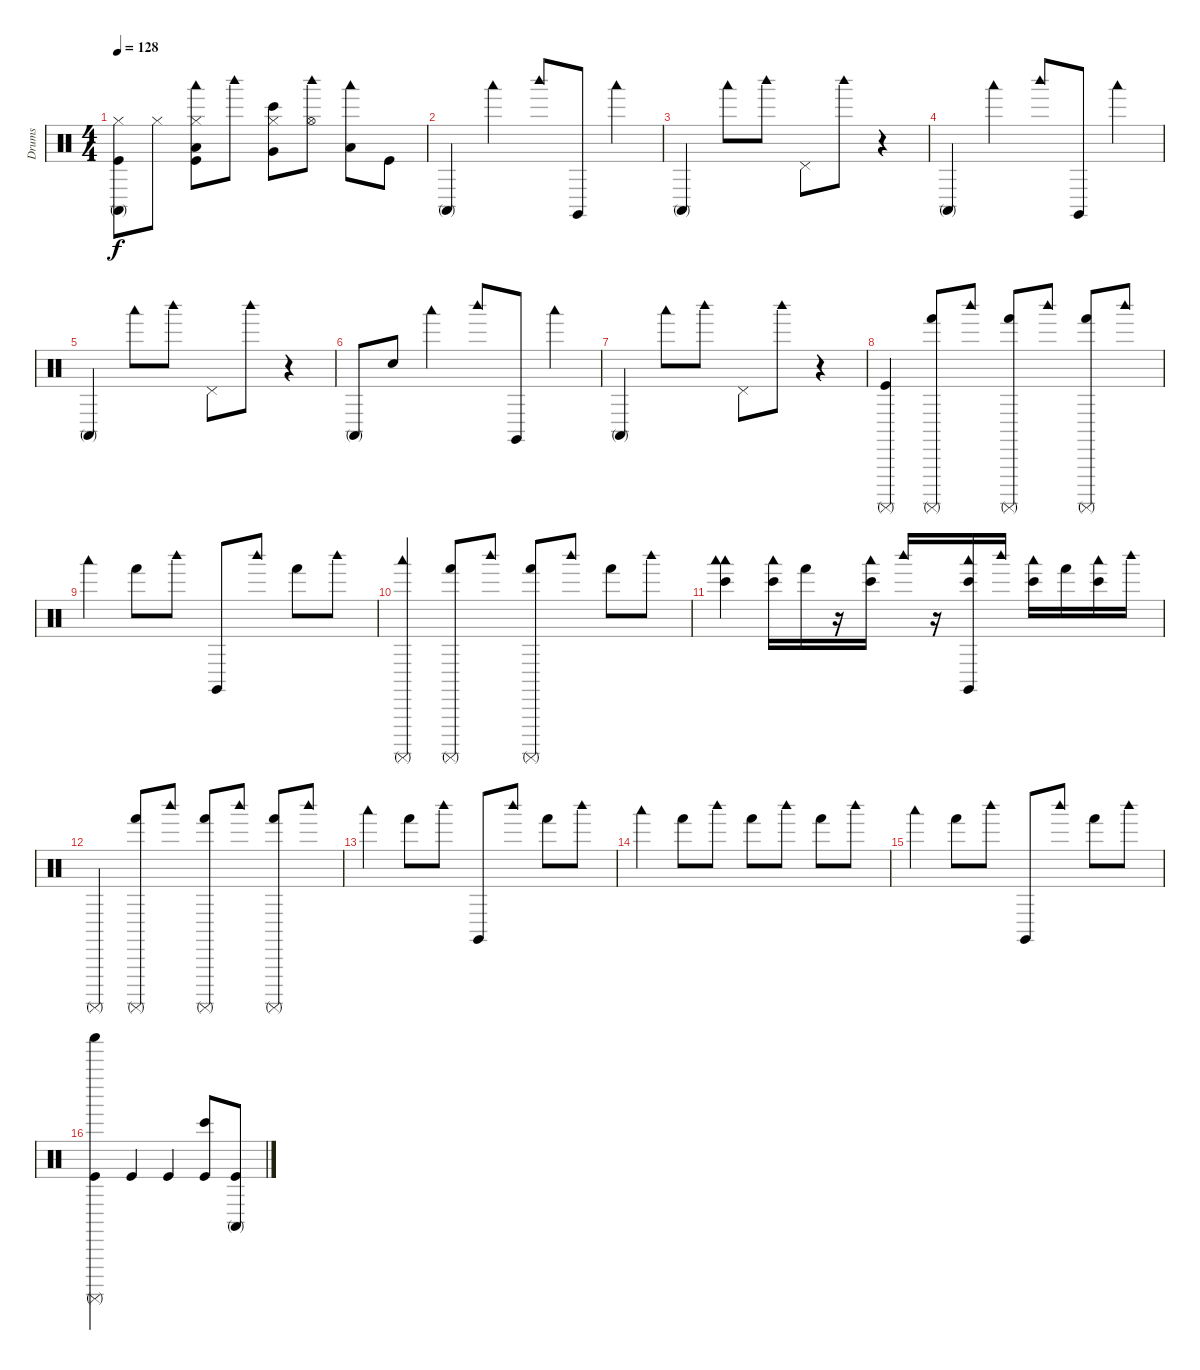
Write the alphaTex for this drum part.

\track ("Drums" "Drums") {instrument percussion}
\staff {score}
\articulation defaults
\ts (4 4)
\tempo 128
\clef neutral
\ks c
("Hi-Hat (closed)" "Conga high (mute)" "Kick (hit)").8{dy f} "Hi-Hat (closed)".8 ("Hi-Hat (closed)" "Woodblock low (hit)" "Low Tom (hit)" "Kick (hit)").8 "Woodblock high (hit)".8 ("Hi-Hat (closed)" "Very Low Tom (hit)" "Bongo High (hit)").8 ("Hi-Hat (open)" "Woodblock high (hit)").8 ("Woodblock low (hit)" "Low Floor Tom (hit)").8 "Kick (hit)".8 |
"Conga high (mute)".4 "Woodblock low (hit)".4 "Woodblock high (hit)".8 "Claves (hit)".8 "Woodblock low (hit)".4 |
"Conga high (mute)".4 "Woodblock low (hit)".8 "Woodblock high (hit)".8 "Pedal Hi-Hat (hit)".8 "Woodblock high (hit)".8 r.4 |
"Conga high (mute)".4 "Woodblock low (hit)".4 "Woodblock high (hit)".8 "Claves (hit)".8 "Woodblock low (hit)".4 |
"Conga high (mute)".4 "Woodblock low (hit)".8 "Woodblock high (hit)".8 "Pedal Hi-Hat (hit)".8 "Woodblock high (hit)".8 r.4 |
"Conga high (mute)".8 "Electric Snare (hit)".8 "Woodblock low (hit)".4 "Woodblock high (hit)".8 "Claves (hit)".8 "Woodblock low (hit)".4 |
"Conga high (mute)".4 "Woodblock low (hit)".8 "Woodblock high (hit)".8 "Pedal Hi-Hat (hit)".8 "Woodblock high (hit)".8 r.4 |
("Surdo (mute)" "Kick (hit)").4 ("Surdo (mute)" "Hand (hit)").8 "Woodblock high (hit)".8 ("Surdo (mute)" "Hand (hit)").8 "Woodblock high (hit)".8 ("Surdo (mute)" "Hand (hit)").8 "Woodblock high (hit)".8 |
"Woodblock low (hit)".4 "Hand (hit)".8 "Woodblock high (hit)".8 "Claves (hit)".8 "Woodblock high (hit)".8 "Hand (hit)".8 "Woodblock high (hit)".8 |
("Surdo (mute)" "Woodblock low (hit)").4 ("Surdo (mute)" "Hand (hit)").8 "Woodblock high (hit)".8 ("Surdo (mute)" "Hand (hit)").8 "Woodblock high (hit)".8 "Hand (hit)".8 "Woodblock high (hit)".8 |
("Woodblock low (hit)" "Bongo High (hit)" "Woodblock low (hit)").4 ("Woodblock low (hit)" "Bongo High (hit)").16 "Hand (hit)".16 r.16 ("Woodblock low (hit)" "Bongo High (hit)").16 "Woodblock high (hit)".16 r.16 ("Woodblock low (hit)" "Bongo High (hit)" "Claves (hit)").16 "Woodblock high (hit)".16 ("Woodblock low (hit)" "Bongo High (hit)").16 "Hand (hit)".16 ("Woodblock low (hit)" "Bongo High (hit)").16 "Woodblock high (hit)".16 |
"Surdo (mute)".4 ("Surdo (mute)" "Hand (hit)").8 "Woodblock high (hit)".8 ("Surdo (mute)" "Hand (hit)").8 "Woodblock high (hit)".8 ("Surdo (mute)" "Hand (hit)").8 "Woodblock high (hit)".8 |
"Woodblock low (hit)".4 "Hand (hit)".8 "Woodblock high (hit)".8 "Claves (hit)".8 "Woodblock high (hit)".8 "Hand (hit)".8 "Woodblock high (hit)".8 |
"Woodblock low (hit)".4 "Hand (hit)".8 "Woodblock high (hit)".8 "Hand (hit)".8 "Woodblock high (hit)".8 "Hand (hit)".8 "Woodblock high (hit)".8 |
"Woodblock low (hit)".4 "Hand (hit)".8 "Woodblock high (hit)".8 "Claves (hit)".8 "Woodblock high (hit)".8 "Hand (hit)".8 "Woodblock high (hit)".8 |
("Surdo (mute)" "Shaker (hit)" "Kick (hit)").4 "Kick (hit)".4 "Kick (hit)".4 ("Bongo High (hit)" "Kick (hit)").8 ("Conga high (mute)" "Kick (hit)").8
